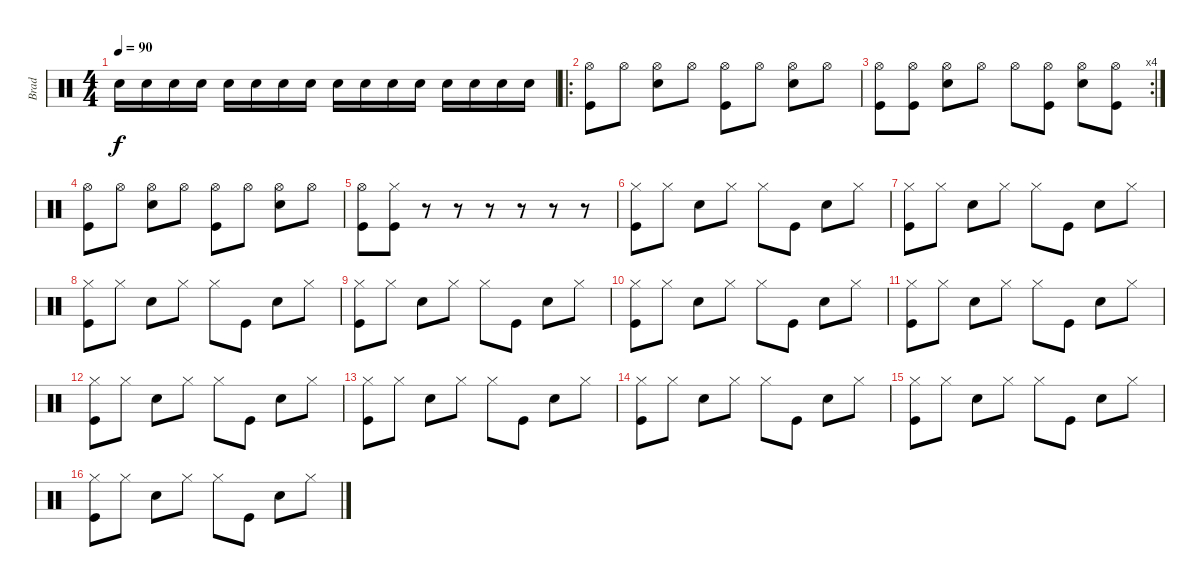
\track ("Brad" "Brad") {instrument percussion}
\staff {score}
\articulation defaults
\ts (4 4)
\tempo 90
\clef neutral
\ks c "Electric Snare (hit)".16{dy f volume 3} "Electric Snare (hit)".16 "Electric Snare (hit)".16 "Electric Snare (hit)".16{volume 6} "Electric Snare (hit)".16 "Electric Snare (hit)".16{volume 7} "Electric Snare (hit)".16 "Electric Snare (hit)".16{volume 9} "Electric Snare (hit)".16 "Electric Snare (hit)".16 "Electric Snare (hit)".16{volume 10} "Electric Snare (hit)".16 "Electric Snare (hit)".16{volume 13} "Electric Snare (hit)".16 "Electric Snare (hit)".16 "Electric Snare (hit)".16
|
\ro
("Hi-Hat (open)" "Kick (hit)").8 "Hi-Hat (open)".8 ("Hi-Hat (open)" "Electric Snare (hit)").8 "Hi-Hat (open)".8 ("Hi-Hat (open)" "Kick (hit)").8 "Hi-Hat (open)".8 ("Hi-Hat (open)" "Electric Snare (hit)").8 "Hi-Hat (open)".8 |
\rc 4
("Hi-Hat (open)" "Kick (hit)").8 ("Hi-Hat (open)" "Kick (hit)").8 ("Hi-Hat (open)" "Electric Snare (hit)").8 "Hi-Hat (open)".8 "Hi-Hat (open)".8 ("Hi-Hat (open)" "Kick (hit)").8 ("Hi-Hat (open)" "Electric Snare (hit)").8 ("Hi-Hat (open)" "Kick (hit)").8 |
("Hi-Hat (open)" "Kick (hit)").8 "Hi-Hat (open)".8 ("Hi-Hat (open)" "Electric Snare (hit)").8 "Hi-Hat (open)".8 ("Hi-Hat (open)" "Kick (hit)").8 "Hi-Hat (open)".8 ("Hi-Hat (open)" "Electric Snare (hit)").8 "Hi-Hat (open)".8 |
("Hi-Hat (open)" "Kick (hit)").8 ("Hi-Hat (closed)" "Kick (hit)").8 r.8 r.8 r.8 r.8 r.8 r.8 |
("Hi-Hat (closed)" "Kick (hit)").8 "Hi-Hat (closed)".8 "Electric Snare (hit)".8 "Hi-Hat (closed)".8 "Hi-Hat (closed)".8 "Kick (hit)".8 "Electric Snare (hit)".8 "Hi-Hat (closed)".8 |
("Hi-Hat (closed)" "Kick (hit)").8 "Hi-Hat (closed)".8 "Electric Snare (hit)".8 "Hi-Hat (closed)".8 "Hi-Hat (closed)".8 "Kick (hit)".8 "Electric Snare (hit)".8 "Hi-Hat (closed)".8 |
("Hi-Hat (closed)" "Kick (hit)").8 "Hi-Hat (closed)".8 "Electric Snare (hit)".8 "Hi-Hat (closed)".8 "Hi-Hat (closed)".8 "Kick (hit)".8 "Electric Snare (hit)".8 "Hi-Hat (closed)".8 |
("Hi-Hat (closed)" "Kick (hit)").8 "Hi-Hat (closed)".8 "Electric Snare (hit)".8 "Hi-Hat (closed)".8 "Hi-Hat (closed)".8 "Kick (hit)".8 "Electric Snare (hit)".8 "Hi-Hat (closed)".8 |
("Hi-Hat (closed)" "Kick (hit)").8 "Hi-Hat (closed)".8 "Electric Snare (hit)".8 "Hi-Hat (closed)".8 "Hi-Hat (closed)".8 "Kick (hit)".8 "Electric Snare (hit)".8 "Hi-Hat (closed)".8 |
("Hi-Hat (closed)" "Kick (hit)").8 "Hi-Hat (closed)".8 "Electric Snare (hit)".8 "Hi-Hat (closed)".8 "Hi-Hat (closed)".8 "Kick (hit)".8 "Electric Snare (hit)".8 "Hi-Hat (closed)".8 |
("Hi-Hat (closed)" "Kick (hit)").8 "Hi-Hat (closed)".8 "Electric Snare (hit)".8 "Hi-Hat (closed)".8 "Hi-Hat (closed)".8 "Kick (hit)".8 "Electric Snare (hit)".8 "Hi-Hat (closed)".8 |
("Hi-Hat (closed)" "Kick (hit)").8 "Hi-Hat (closed)".8 "Electric Snare (hit)".8 "Hi-Hat (closed)".8 "Hi-Hat (closed)".8 "Kick (hit)".8 "Electric Snare (hit)".8 "Hi-Hat (closed)".8 |
("Hi-Hat (closed)" "Kick (hit)").8 "Hi-Hat (closed)".8 "Electric Snare (hit)".8 "Hi-Hat (closed)".8 "Hi-Hat (closed)".8 "Kick (hit)".8 "Electric Snare (hit)".8 "Hi-Hat (closed)".8 |
("Hi-Hat (closed)" "Kick (hit)").8 "Hi-Hat (closed)".8 "Electric Snare (hit)".8 "Hi-Hat (closed)".8 "Hi-Hat (closed)".8 "Kick (hit)".8 "Electric Snare (hit)".8 "Hi-Hat (closed)".8 |
("Hi-Hat (closed)" "Kick (hit)").8 "Hi-Hat (closed)".8 "Electric Snare (hit)".8 "Hi-Hat (closed)".8 "Hi-Hat (closed)".8 "Kick (hit)".8 "Electric Snare (hit)".8 "Hi-Hat (closed)".8
